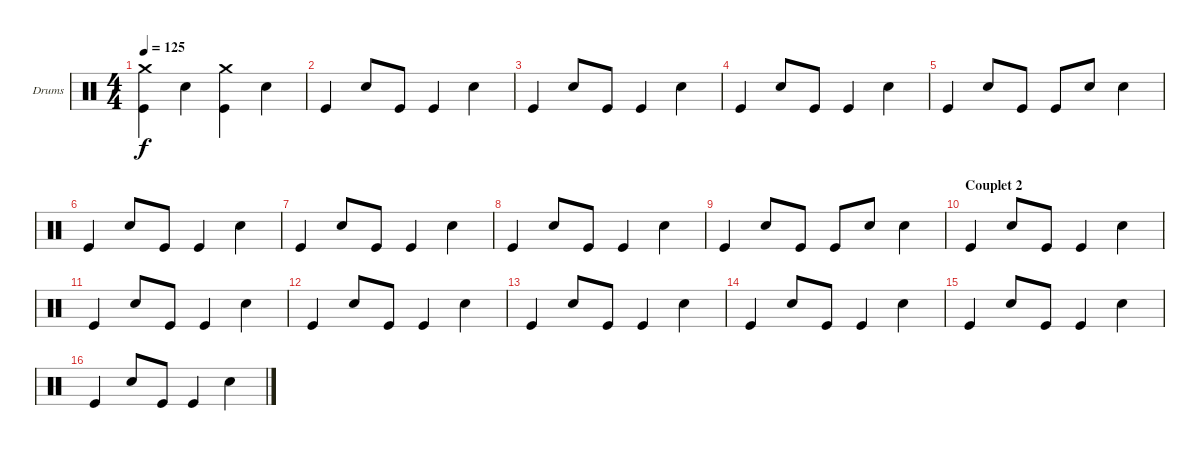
\bracketExtendMode groupsimilarinstruments
\firstSystemTrackNameOrientation horizontal
\otherSystemsTrackNameOrientation horizontal
\track ("batterie" "Drums") {instrument percussion}
\staff {score}
\articulation defaults
\ts (4 4)
\tempo 125
\clef neutral
\ks c
("Crash medium (hit)" "Kick (hit)").4{dy f} "Snare (hit) 2".4 ("Crash medium (hit)" "Kick (hit)").4 "Snare (hit) 2".4 |
"Kick (hit)".4 "Snare (hit) 2".8 "Kick (hit)".8 "Kick (hit)".4 "Snare (hit) 2".4 |
"Kick (hit)".4 "Snare (hit) 2".8 "Kick (hit)".8 "Kick (hit)".4 "Snare (hit) 2".4 |
"Kick (hit)".4 "Snare (hit) 2".8 "Kick (hit)".8 "Kick (hit)".4 "Snare (hit) 2".4 |
"Kick (hit)".4 "Snare (hit) 2".8 "Kick (hit)".8 "Kick (hit)".8 "Snare (hit) 2".8 "Snare (hit) 2".4 |
"Kick (hit)".4 "Snare (hit) 2".8 "Kick (hit)".8 "Kick (hit)".4 "Snare (hit) 2".4 |
"Kick (hit)".4 "Snare (hit) 2".8 "Kick (hit)".8 "Kick (hit)".4 "Snare (hit) 2".4 |
"Kick (hit)".4 "Snare (hit) 2".8 "Kick (hit)".8 "Kick (hit)".4 "Snare (hit) 2".4 |
"Kick (hit)".4 "Snare (hit) 2".8 "Kick (hit)".8 "Kick (hit)".8 "Snare (hit) 2".8 "Snare (hit) 2".4 |
\section ("" "Couplet 2")
"Kick (hit)".4 "Snare (hit) 2".8 "Kick (hit)".8 "Kick (hit)".4 "Snare (hit) 2".4 |
"Kick (hit)".4 "Snare (hit) 2".8 "Kick (hit)".8 "Kick (hit)".4 "Snare (hit) 2".4 |
"Kick (hit)".4 "Snare (hit) 2".8 "Kick (hit)".8 "Kick (hit)".4 "Snare (hit) 2".4 |
"Kick (hit)".4 "Snare (hit) 2".8 "Kick (hit)".8 "Kick (hit)".4 "Snare (hit) 2".4 |
"Kick (hit)".4 "Snare (hit) 2".8 "Kick (hit)".8 "Kick (hit)".4 "Snare (hit) 2".4 |
"Kick (hit)".4 "Snare (hit) 2".8 "Kick (hit)".8 "Kick (hit)".4 "Snare (hit) 2".4 |
"Kick (hit)".4 "Snare (hit) 2".8 "Kick (hit)".8 "Kick (hit)".4 "Snare (hit) 2".4
